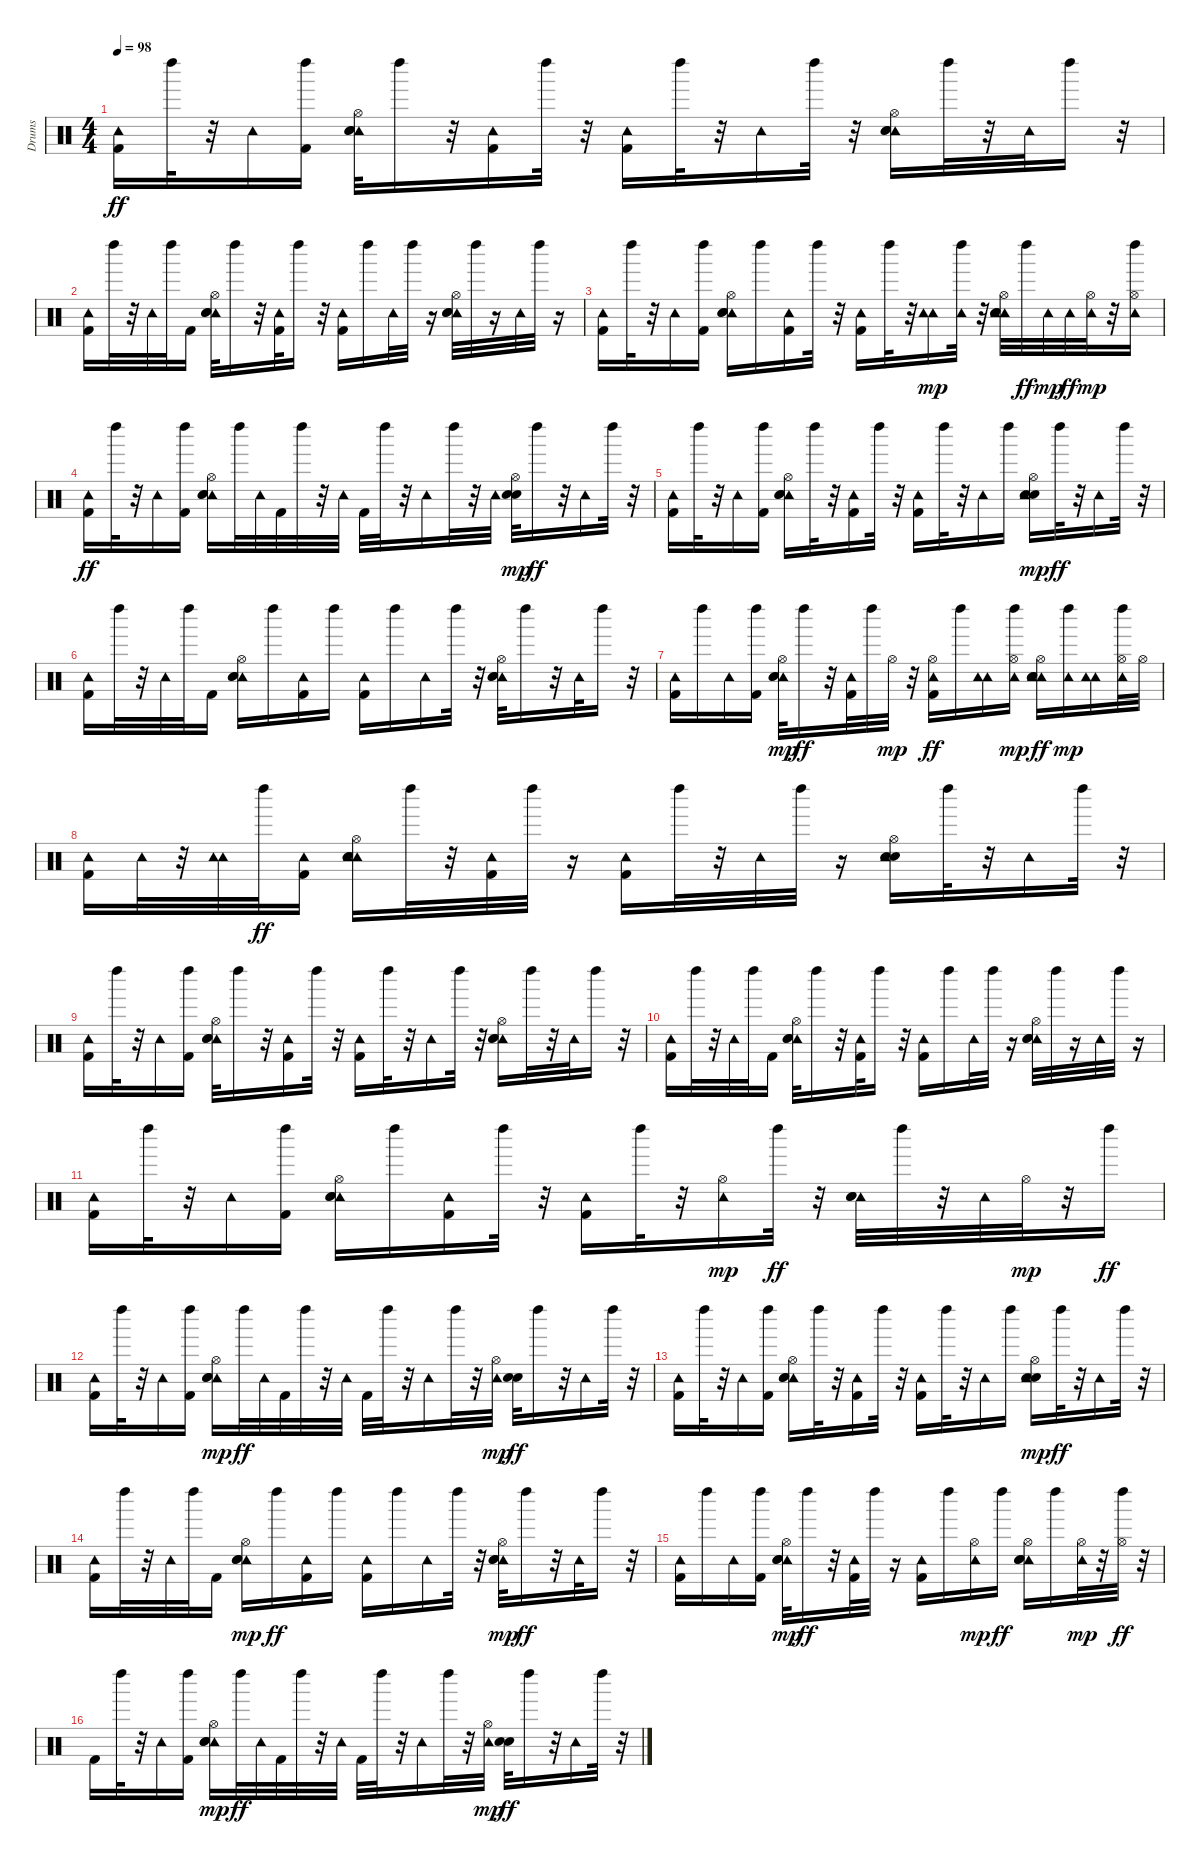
\track ("Drums" "Drums") {instrument percussion}
\staff {score}
\articulation defaults
\ts (4 4)
\tempo 98
\clef neutral
\ks c
("Tambourine (hit)" "Kick (hit) 2").16{dy ff} "Left Maraca (hit)".32 r.32 "Tambourine (hit)".16 ("Left Maraca (hit)" "Kick (hit) 2").16 ("Tambourine (hit)" "Hi-Hat (open)" "Snare (hit) 2" "Electric Snare (hit)").32 "Left Maraca (hit)".16 r.32 ("Tambourine (hit)" "Kick (hit) 2").16 "Left Maraca (hit)".32 r.32 ("Tambourine (hit)" "Kick (hit) 2").16 "Left Maraca (hit)".32 r.32 "Tambourine (hit)".16 "Left Maraca (hit)".32 r.32 ("Hi-Hat (open)" "Tambourine (hit)" "Snare (hit) 2" "Electric Snare (hit)").16 "Left Maraca (hit)".32 r.32 "Tambourine (hit)".32 "Left Maraca (hit)".16 r.32 |
("Tambourine (hit)" "Kick (hit) 2").16 "Left Maraca (hit)".32 r.32 "Tambourine (hit)".32 "Left Maraca (hit)".32 "Kick (hit) 2".16 ("Tambourine (hit)" "Hi-Hat (open)" "Electric Snare (hit)" "Snare (hit) 2").32 "Left Maraca (hit)".16 r.32 ("Tambourine (hit)" "Kick (hit) 2").32 "Left Maraca (hit)".16 r.32 ("Tambourine (hit)" "Kick (hit) 2").16 "Left Maraca (hit)".16 "Tambourine (hit)".32 "Left Maraca (hit)".32 r.16 ("Tambourine (hit)" "Hi-Hat (open)" "Snare (hit) 2" "Electric Snare (hit)").32 "Left Maraca (hit)".32 r.16 "Tambourine (hit)".32 "Left Maraca (hit)".32 r.16 |
("Tambourine (hit)" "Kick (hit) 2").16 "Left Maraca (hit)".32 r.32 "Tambourine (hit)".16 ("Left Maraca (hit)" "Kick (hit) 2").16 ("Tambourine (hit)" "Hi-Hat (open)" "Electric Snare (hit)" "Snare (hit) 2").16 "Left Maraca (hit)".16 ("Kick (hit) 2" "Tambourine (hit)").16 "Left Maraca (hit)".32 r.32 ("Kick (hit) 2" "Tambourine (hit)").16 "Left Maraca (hit)".32 r.32 ("Tambourine (hit)" "Tambourine (hit)").16{dy mp} ("Left Maraca (hit)" "Tambourine (hit)").32 r.32 ("Tambourine (hit)" "Snare (hit) 2" "Electric Snare (hit)" "Hi-Hat (open)" "Tambourine (hit)").32 "Left Maraca (hit)".32{dy ff} "Tambourine (hit)".32{dy mp} "Tambourine (hit)".32{dy ff} ("Tambourine (hit)" "Hi-Hat (open)").32{dy mp} r.32 ("Left Maraca (hit)" "Hi-Hat (open)" "Tambourine (hit)").16 |
("Tambourine (hit)" "Kick (hit) 2").16{dy ff} "Left Maraca (hit)".32 r.32 "Tambourine (hit)".16 ("Left Maraca (hit)" "Kick (hit) 2").16 ("Hi-Hat (open)" "Tambourine (hit)" "Electric Snare (hit)" "Snare (hit) 2").16 "Left Maraca (hit)".32 "Tambourine (hit)".32 "Kick (hit) 2".32 "Left Maraca (hit)".32 r.32 "Tambourine (hit)".32 "Kick (hit) 2".32 "Left Maraca (hit)".32 r.32 "Tambourine (hit)".16 "Left Maraca (hit)".32 r.32 "Tambourine (hit)".32 ("Snare (hit) 2" "Electric Snare (hit)" "Hi-Hat (open)").32{dy mp} "Left Maraca (hit)".16{dy ff} r.32 "Tambourine (hit)".16 "Left Maraca (hit)".32 r.32 |
("Tambourine (hit)" "Kick (hit) 2").16 "Left Maraca (hit)".32 r.32 "Tambourine (hit)".16 ("Left Maraca (hit)" "Kick (hit) 2").16 ("Tambourine (hit)" "Hi-Hat (open)" "Snare (hit) 2" "Electric Snare (hit)").16 "Left Maraca (hit)".32 r.32 ("Tambourine (hit)" "Kick (hit) 2").16 "Left Maraca (hit)".32 r.32 ("Kick (hit) 2" "Tambourine (hit)").16 "Left Maraca (hit)".32 r.32 "Tambourine (hit)".16 "Left Maraca (hit)".16 ("Electric Snare (hit)" "Snare (hit) 2" "Tambourine (hit)" "Hi-Hat (open)").16{dy mp} "Left Maraca (hit)".32{dy ff} r.32 "Tambourine (hit)".16 "Left Maraca (hit)".32 r.32 |
("Tambourine (hit)" "Kick (hit) 2").16 "Left Maraca (hit)".32 r.32 "Tambourine (hit)".32 "Left Maraca (hit)".32 "Kick (hit) 2".16 ("Tambourine (hit)" "Hi-Hat (open)" "Snare (hit) 2" "Electric Snare (hit)").16 "Left Maraca (hit)".16 ("Tambourine (hit)" "Kick (hit) 2").16 "Left Maraca (hit)".16 ("Tambourine (hit)" "Kick (hit) 2").16 "Left Maraca (hit)".16 "Tambourine (hit)".16 "Left Maraca (hit)".32 r.32 ("Tambourine (hit)" "Hi-Hat (open)" "Snare (hit) 2" "Electric Snare (hit)").32 "Left Maraca (hit)".16 r.32 "Tambourine (hit)".32 "Left Maraca (hit)".16 r.32 |
("Tambourine (hit)" "Kick (hit) 2").16 "Left Maraca (hit)".16 "Tambourine (hit)".16 ("Left Maraca (hit)" "Kick (hit) 2").16 ("Tambourine (hit)" "Snare (hit) 2" "Electric Snare (hit)" "Hi-Hat (open)").32{dy mp} "Left Maraca (hit)".16{dy ff} r.32 ("Tambourine (hit)" "Kick (hit) 2").32 "Left Maraca (hit)".32 "Hi-Hat (open)".32{dy mp} r.32 ("Tambourine (hit)" "Hi-Hat (open)" "Kick (hit) 2").16{dy ff} "Left Maraca (hit)".16 ("Tambourine (hit)" "Tambourine (hit)").16 ("Left Maraca (hit)" "Tambourine (hit)" "Hi-Hat (open)").16{dy mp} ("Hi-Hat (open)" "Tambourine (hit)" "Tambourine (hit)" "Electric Snare (hit)" "Snare (hit) 2").16{dy ff} ("Left Maraca (hit)" "Tambourine (hit)").16{dy mp} ("Tambourine (hit)" "Tambourine (hit)").16 ("Hi-Hat (open)" "Left Maraca (hit)" "Tambourine (hit)").32 "Hi-Hat (open)".32 |
("Kick (hit) 2" "Tambourine (hit)").16 "Tambourine (hit)".32 r.32 ("Tambourine (hit)" "Tambourine (hit)").32 "Left Maraca (hit)".32{dy ff} ("Tambourine (hit)" "Kick (hit) 2").16 ("Tambourine (hit)" "Tambourine (hit)" "Hi-Hat (open)" "Electric Snare (hit)" "Snare (hit) 2").16 "Left Maraca (hit)".32 r.32 ("Tambourine (hit)" "Kick (hit) 2").32 "Left Maraca (hit)".32 r.16 ("Tambourine (hit)" "Kick (hit) 2").16 "Left Maraca (hit)".32 r.32 "Tambourine (hit)".32 "Left Maraca (hit)".32 r.16 ("Snare (hit) 2" "Electric Snare (hit)" "Hi-Hat (open)" "Tambourine (hit)").16 "Left Maraca (hit)".32 r.32 "Tambourine (hit)".16 "Left Maraca (hit)".32 r.32 |
("Tambourine (hit)" "Kick (hit) 2").16 "Left Maraca (hit)".32 r.32 "Tambourine (hit)".16 ("Left Maraca (hit)" "Kick (hit) 2").16 ("Tambourine (hit)" "Hi-Hat (open)" "Snare (hit) 2" "Electric Snare (hit)").32 "Left Maraca (hit)".16 r.32 ("Tambourine (hit)" "Kick (hit) 2").16 "Left Maraca (hit)".32 r.32 ("Tambourine (hit)" "Kick (hit) 2").16 "Left Maraca (hit)".32 r.32 "Tambourine (hit)".16 "Left Maraca (hit)".32 r.32 ("Tambourine (hit)" "Hi-Hat (open)" "Electric Snare (hit)" "Snare (hit) 2").16 "Left Maraca (hit)".32 r.32 "Tambourine (hit)".32 "Left Maraca (hit)".16 r.32 |
("Tambourine (hit)" "Kick (hit) 2").16 "Left Maraca (hit)".32 r.32 "Tambourine (hit)".32 "Left Maraca (hit)".32 "Kick (hit) 2".16 ("Tambourine (hit)" "Hi-Hat (open)" "Snare (hit) 2" "Electric Snare (hit)").32 "Left Maraca (hit)".16 r.32 ("Tambourine (hit)" "Kick (hit) 2").32 "Left Maraca (hit)".16 r.32 ("Tambourine (hit)" "Kick (hit) 2").16 "Left Maraca (hit)".16 "Tambourine (hit)".32 "Left Maraca (hit)".32 r.16 ("Tambourine (hit)" "Hi-Hat (open)" "Electric Snare (hit)" "Snare (hit) 2").32 "Left Maraca (hit)".32 r.16 "Tambourine (hit)".32 "Left Maraca (hit)".32 r.16 |
("Tambourine (hit)" "Kick (hit) 2").16 "Left Maraca (hit)".32 r.32 "Tambourine (hit)".16 ("Left Maraca (hit)" "Kick (hit) 2").16 ("Tambourine (hit)" "Snare (hit) 2" "Hi-Hat (open)" "Electric Snare (hit)").16 "Left Maraca (hit)".16 ("Kick (hit) 2" "Tambourine (hit)").16 "Left Maraca (hit)".32 r.32 ("Kick (hit) 2" "Tambourine (hit)").16 "Left Maraca (hit)".32 r.32 ("Tambourine (hit)" "Hi-Hat (open)").16{dy mp} "Left Maraca (hit)".32{dy ff} r.32 ("Tambourine (hit)" "Electric Snare (hit)" "Snare (hit) 2").32 "Left Maraca (hit)".32 r.32 "Tambourine (hit)".32 "Hi-Hat (open)".32{dy mp} r.32 "Left Maraca (hit)".16{dy ff} |
("Tambourine (hit)" "Kick (hit) 2").16 "Left Maraca (hit)".32 r.32 "Tambourine (hit)".16 ("Left Maraca (hit)" "Kick (hit) 2").16 ("Tambourine (hit)" "Electric Snare (hit)" "Snare (hit) 2" "Hi-Hat (open)").16{dy mp} "Left Maraca (hit)".32{dy ff} "Tambourine (hit)".32 "Kick (hit) 2".32 "Left Maraca (hit)".32 r.32 "Tambourine (hit)".32 "Kick (hit) 2".32 "Left Maraca (hit)".32 r.32 "Tambourine (hit)".16 "Left Maraca (hit)".32 r.32 ("Tambourine (hit)" "Hi-Hat (open)").32{dy mp} ("Snare (hit) 2" "Electric Snare (hit)").32{dy ff} "Left Maraca (hit)".16 r.32 "Tambourine (hit)".16 "Left Maraca (hit)".32 r.32 |
("Tambourine (hit)" "Kick (hit) 2").16 "Left Maraca (hit)".32 r.32 "Tambourine (hit)".16 ("Left Maraca (hit)" "Kick (hit) 2").16 ("Tambourine (hit)" "Hi-Hat (open)" "Snare (hit) 2" "Electric Snare (hit)").16 "Left Maraca (hit)".32 r.32 ("Tambourine (hit)" "Kick (hit) 2").16 "Left Maraca (hit)".32 r.32 ("Kick (hit) 2" "Tambourine (hit)").16 "Left Maraca (hit)".32 r.32 "Tambourine (hit)".16 "Left Maraca (hit)".16 ("Electric Snare (hit)" "Tambourine (hit)" "Snare (hit) 2" "Hi-Hat (open)").16{dy mp} "Left Maraca (hit)".32{dy ff} r.32 "Tambourine (hit)".16 "Left Maraca (hit)".32 r.32 |
("Tambourine (hit)" "Kick (hit) 2").16 "Left Maraca (hit)".32 r.32 "Tambourine (hit)".32 "Left Maraca (hit)".32 "Kick (hit) 2".16 ("Tambourine (hit)" "Electric Snare (hit)" "Snare (hit) 2" "Hi-Hat (open)").16{dy mp} "Left Maraca (hit)".16{dy ff} ("Tambourine (hit)" "Kick (hit) 2").16 "Left Maraca (hit)".16 ("Tambourine (hit)" "Kick (hit) 2").16 "Left Maraca (hit)".16 "Tambourine (hit)".16 "Left Maraca (hit)".32 r.32 ("Tambourine (hit)" "Electric Snare (hit)" "Snare (hit) 2" "Hi-Hat (open)").32{dy mp} "Left Maraca (hit)".16{dy ff} r.32 "Tambourine (hit)".32 "Left Maraca (hit)".16 r.32 |
("Tambourine (hit)" "Kick (hit) 2").16 "Left Maraca (hit)".16 "Tambourine (hit)".16 ("Left Maraca (hit)" "Kick (hit) 2").16 ("Tambourine (hit)" "Electric Snare (hit)" "Snare (hit) 2" "Hi-Hat (open)").32{dy mp} "Left Maraca (hit)".16{dy ff} r.32 ("Tambourine (hit)" "Kick (hit) 2").32 "Left Maraca (hit)".32 r.16 ("Tambourine (hit)" "Kick (hit) 2").16 "Left Maraca (hit)".16 ("Tambourine (hit)" "Hi-Hat (open)").16{dy mp} "Left Maraca (hit)".16{dy ff} ("Tambourine (hit)" "Snare (hit) 2" "Hi-Hat (open)" "Electric Snare (hit)").16 "Left Maraca (hit)".16 ("Tambourine (hit)" "Hi-Hat (open)").32{dy mp} r.32 ("Hi-Hat (open)" "Left Maraca (hit)").32{dy ff} r.32 |
"Kick (hit) 2".16 "Left Maraca (hit)".32 r.32 "Tambourine (hit)".16 ("Left Maraca (hit)" "Kick (hit) 2").16 ("Tambourine (hit)" "Electric Snare (hit)" "Snare (hit) 2" "Hi-Hat (open)").16{dy mp} "Left Maraca (hit)".32{dy ff} "Tambourine (hit)".32 "Kick (hit) 2".32 "Left Maraca (hit)".32 r.32 "Tambourine (hit)".32 "Kick (hit) 2".32 "Left Maraca (hit)".32 r.32 "Tambourine (hit)".16 "Left Maraca (hit)".32 r.32 ("Tambourine (hit)" "Hi-Hat (open)").32{dy mp} ("Snare (hit) 2" "Electric Snare (hit)").32{dy ff} "Left Maraca (hit)".16 r.32 "Tambourine (hit)".16 "Left Maraca (hit)".32 r.32
